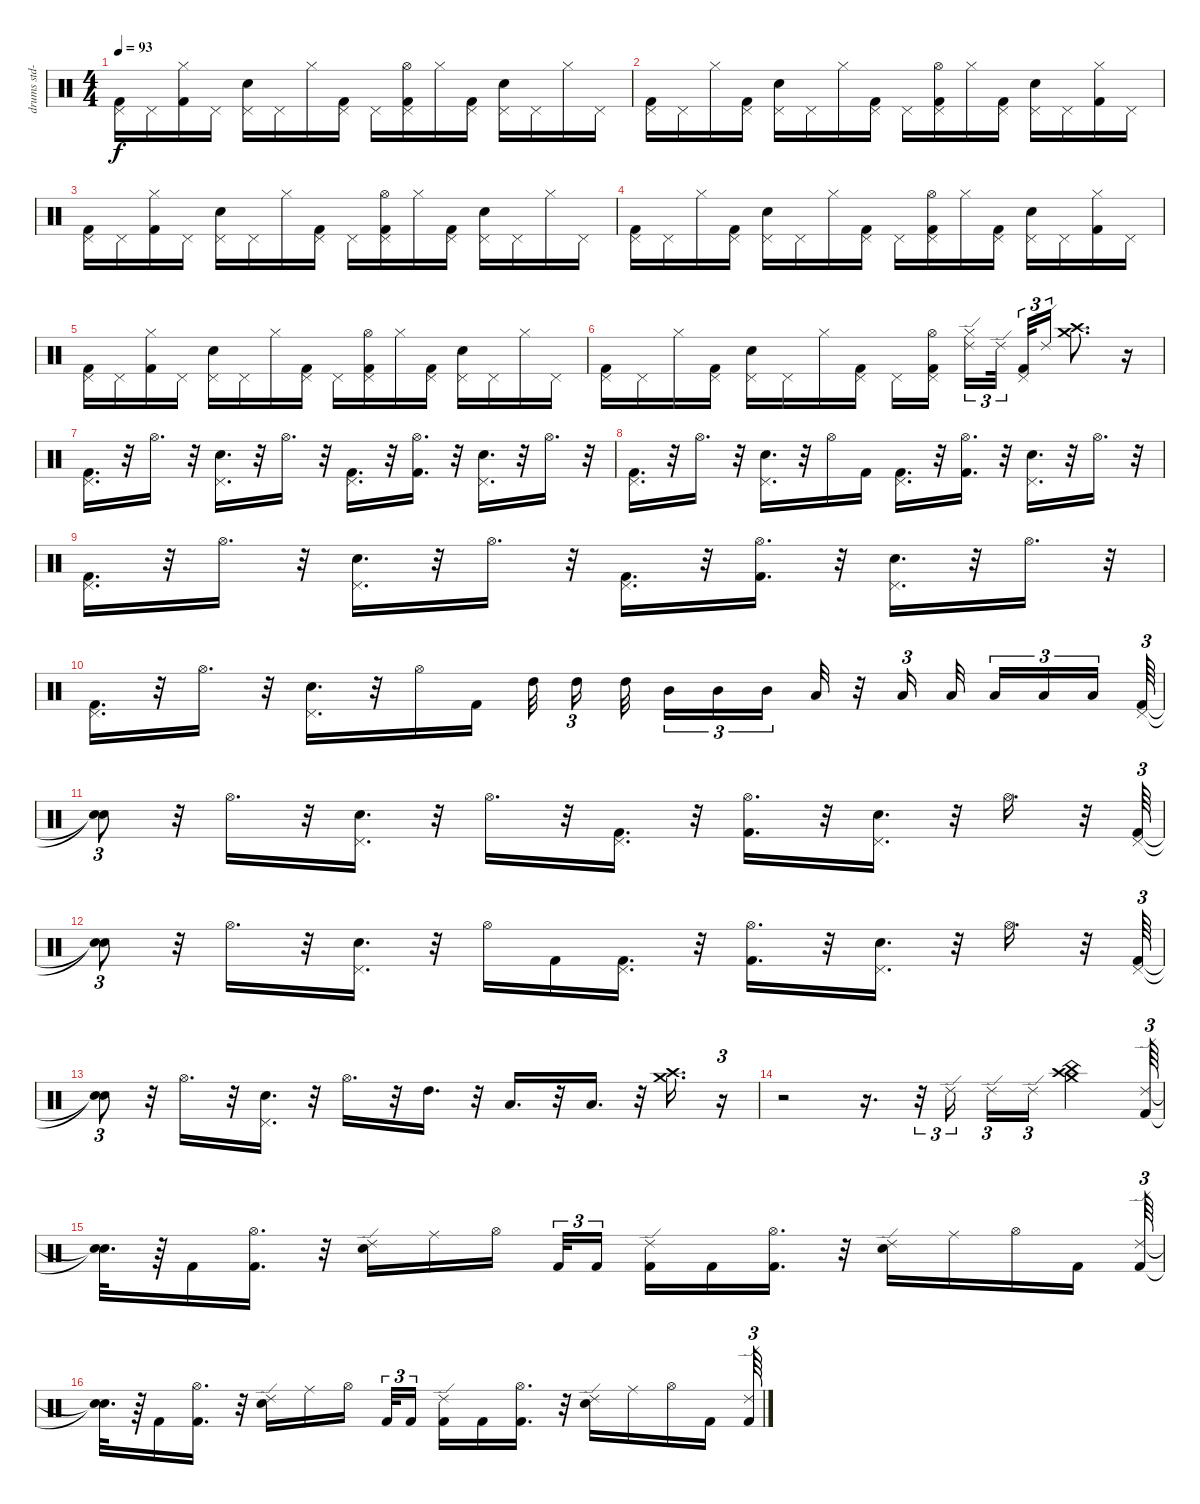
\track ("drums std-0" "drums std-") {instrument percussion}
\staff {score}
\articulation defaults
\ts (4 4)
\tempo 93
\clef neutral
\ks c
("Pedal Hi-Hat (hit)" "Kick (hit) 2").16{dy f} "Pedal Hi-Hat (hit)".16 ("Hi-Hat (closed)" "Kick (hit) 2").16 "Pedal Hi-Hat (hit)".16 ("Pedal Hi-Hat (hit)" "Snare (hit) 2").16 "Pedal Hi-Hat (hit)".16 "Hi-Hat (closed)".16 ("Pedal Hi-Hat (hit)" "Kick (hit) 2").16 "Pedal Hi-Hat (hit)".16 ("Pedal Hi-Hat (hit)" "Kick (hit) 2" "Hi-Hat (open)").16 "Hi-Hat (closed)".16 ("Pedal Hi-Hat (hit)" "Kick (hit) 2").16 ("Pedal Hi-Hat (hit)" "Snare (hit) 2").16 "Pedal Hi-Hat (hit)".16 "Hi-Hat (closed)".16 "Pedal Hi-Hat (hit)".16 |
("Pedal Hi-Hat (hit)" "Kick (hit) 2").16 "Pedal Hi-Hat (hit)".16 "Hi-Hat (closed)".16 ("Pedal Hi-Hat (hit)" "Kick (hit) 2").16 ("Pedal Hi-Hat (hit)" "Snare (hit) 2").16 "Pedal Hi-Hat (hit)".16 "Hi-Hat (closed)".16 ("Pedal Hi-Hat (hit)" "Kick (hit) 2").16 "Pedal Hi-Hat (hit)".16 ("Pedal Hi-Hat (hit)" "Kick (hit) 2" "Hi-Hat (open)").16 "Hi-Hat (closed)".16 ("Pedal Hi-Hat (hit)" "Kick (hit) 2").16 ("Pedal Hi-Hat (hit)" "Snare (hit) 2").16 "Pedal Hi-Hat (hit)".16 ("Hi-Hat (closed)" "Kick (hit) 2").16 "Pedal Hi-Hat (hit)".16 |
("Pedal Hi-Hat (hit)" "Kick (hit) 2").16 "Pedal Hi-Hat (hit)".16 ("Hi-Hat (closed)" "Kick (hit) 2").16 "Pedal Hi-Hat (hit)".16 ("Pedal Hi-Hat (hit)" "Snare (hit) 2").16 "Pedal Hi-Hat (hit)".16 "Hi-Hat (closed)".16 ("Pedal Hi-Hat (hit)" "Kick (hit) 2").16 "Pedal Hi-Hat (hit)".16 ("Pedal Hi-Hat (hit)" "Kick (hit) 2" "Hi-Hat (open)").16 "Hi-Hat (closed)".16 ("Pedal Hi-Hat (hit)" "Kick (hit) 2").16 ("Pedal Hi-Hat (hit)" "Snare (hit) 2").16 "Pedal Hi-Hat (hit)".16 "Hi-Hat (closed)".16 "Pedal Hi-Hat (hit)".16 |
("Pedal Hi-Hat (hit)" "Kick (hit) 2").16 "Pedal Hi-Hat (hit)".16 "Hi-Hat (closed)".16 ("Pedal Hi-Hat (hit)" "Kick (hit) 2").16 ("Pedal Hi-Hat (hit)" "Snare (hit) 2").16 "Pedal Hi-Hat (hit)".16 "Hi-Hat (closed)".16 ("Pedal Hi-Hat (hit)" "Kick (hit) 2").16 "Pedal Hi-Hat (hit)".16 ("Pedal Hi-Hat (hit)" "Kick (hit) 2" "Hi-Hat (open)").16 "Hi-Hat (closed)".16 ("Pedal Hi-Hat (hit)" "Kick (hit) 2").16 ("Pedal Hi-Hat (hit)" "Snare (hit) 2").16 "Pedal Hi-Hat (hit)".16 ("Hi-Hat (closed)" "Kick (hit) 2").16 "Pedal Hi-Hat (hit)".16 |
("Pedal Hi-Hat (hit)" "Kick (hit) 2").16 "Pedal Hi-Hat (hit)".16 ("Hi-Hat (closed)" "Kick (hit) 2").16 "Pedal Hi-Hat (hit)".16 ("Pedal Hi-Hat (hit)" "Snare (hit) 2").16 "Pedal Hi-Hat (hit)".16 "Hi-Hat (closed)".16 ("Pedal Hi-Hat (hit)" "Kick (hit) 2").16 "Pedal Hi-Hat (hit)".16 ("Pedal Hi-Hat (hit)" "Kick (hit) 2" "Hi-Hat (open)").16 "Hi-Hat (closed)".16 ("Pedal Hi-Hat (hit)" "Kick (hit) 2").16 ("Pedal Hi-Hat (hit)" "Snare (hit) 2").16 "Pedal Hi-Hat (hit)".16 "Hi-Hat (closed)".16 "Pedal Hi-Hat (hit)".16 |
("Pedal Hi-Hat (hit)" "Kick (hit) 2").16 "Pedal Hi-Hat (hit)".16 "Hi-Hat (closed)".16 ("Pedal Hi-Hat (hit)" "Kick (hit) 2").16 ("Pedal Hi-Hat (hit)" "Snare (hit) 2").16 "Pedal Hi-Hat (hit)".16 "Hi-Hat (closed)".16 ("Pedal Hi-Hat (hit)" "Kick (hit) 2").16 "Pedal Hi-Hat (hit)".16 ("Pedal Hi-Hat (hit)" "Kick (hit) 2" "Hi-Hat (open)").16 ("Ride (edge) 2" "Hi-Hat (closed)").16{tu (3 2)} "Ride (edge) 2".32{tu (3 2)} ("Pedal Hi-Hat (hit)" "Kick (hit) 2").32{tu (3 2)} "Ride (edge) 2".16{tu (3 2)} ("Crash medium (hit)" "Crash high (hit)").8{d} r.16 |
("Pedal Hi-Hat (hit)" "Kick (hit) 2").16{d} r.32 "Hi-Hat (open)".16{d} r.32 ("Pedal Hi-Hat (hit)" "Snare (hit) 2").16{d} r.32 "Hi-Hat (open)".16{d} r.32 ("Pedal Hi-Hat (hit)" "Kick (hit) 2").16{d} r.32 ("Hi-Hat (open)" "Kick (hit) 2").16{d} r.32 ("Pedal Hi-Hat (hit)" "Snare (hit) 2").16{d} r.32 "Hi-Hat (open)".16{d} r.32 |
("Pedal Hi-Hat (hit)" "Kick (hit) 2").16{d} r.32 "Hi-Hat (open)".16{d} r.32 ("Pedal Hi-Hat (hit)" "Snare (hit) 2").16{d} r.32 "Hi-Hat (open)".16 "Kick (hit) 2".16 ("Pedal Hi-Hat (hit)" "Kick (hit) 2").16{d} r.32 ("Hi-Hat (open)" "Kick (hit) 2").16{d} r.32 ("Pedal Hi-Hat (hit)" "Snare (hit) 2").16{d} r.32 "Hi-Hat (open)".16{d} r.32 |
("Pedal Hi-Hat (hit)" "Kick (hit) 2").16{d} r.32 "Hi-Hat (open)".16{d} r.32 ("Pedal Hi-Hat (hit)" "Snare (hit) 2").16{d} r.32 "Hi-Hat (open)".16{d} r.32 ("Pedal Hi-Hat (hit)" "Kick (hit) 2").16{d} r.32 ("Hi-Hat (open)" "Kick (hit) 2").16{d} r.32 ("Pedal Hi-Hat (hit)" "Snare (hit) 2").16{d} r.32 "Hi-Hat (open)".16{d} r.32 |
("Pedal Hi-Hat (hit)" "Kick (hit) 2").16{d} r.32 "Hi-Hat (open)".16{d} r.32 ("Pedal Hi-Hat (hit)" "Snare (hit) 2").16{d} r.32 "Hi-Hat (open)".16 "Kick (hit) 2".16 "High Tom (hit)".32 "High Tom (hit)".16{tu (3 2)} "High Tom (hit)".32 "Mid Tom (hit)".16{tu (3 2)} "Mid Tom (hit)".16{tu (3 2)} "Mid Tom (hit)".16{tu (3 2)} "Low Tom (hit)".32 r.32 "Low Tom (hit)".16{tu (3 2)} "Low Tom (hit)".32 "Low Floor Tom (hit)".16{tu (3 2)} "Low Floor Tom (hit)".16{tu (3 2)} "Low Floor Tom (hit)".16{tu (3 2)} ("Pedal Hi-Hat (hit)" "Kick (hit) 2").64{tu (3 2)} |
("Snare (hit)"{t} "Snare (hit)"{t}).8{tu (3 2)} r.32 "Hi-Hat (open)".16{d} r.32 ("Pedal Hi-Hat (hit)" "Snare (hit) 2").16{d} r.32 "Hi-Hat (open)".16{d} r.32 ("Pedal Hi-Hat (hit)" "Kick (hit) 2").16{d} r.32 ("Hi-Hat (open)" "Kick (hit) 2").16{d} r.32 ("Pedal Hi-Hat (hit)" "Snare (hit) 2").16{d} r.32 "Hi-Hat (open)".16{d} r.32 ("Pedal Hi-Hat (hit)" "Kick (hit) 2").64{tu (3 2)} |
("Snare (hit)"{t} "Snare (hit)"{t}).8{tu (3 2)} r.32 "Hi-Hat (open)".16{d} r.32 ("Pedal Hi-Hat (hit)" "Snare (hit) 2").16{d} r.32 "Hi-Hat (open)".16 "Kick (hit) 2".16 ("Pedal Hi-Hat (hit)" "Kick (hit) 2").16{d} r.32 ("Hi-Hat (open)" "Kick (hit) 2").16{d} r.32 ("Pedal Hi-Hat (hit)" "Snare (hit) 2").16{d} r.32 "Hi-Hat (open)".16{d} r.32 ("Pedal Hi-Hat (hit)" "Kick (hit) 2").64{tu (3 2)} |
("Snare (hit)"{t} "Snare (hit)"{t}).8{tu (3 2)} r.32 "Hi-Hat (open)".16{d} r.32 ("Pedal Hi-Hat (hit)" "Snare (hit) 2").16{d} r.32 "Hi-Hat (open)".16{d} r.32 "High Tom (hit)".16{d} r.32 "Low Tom (hit)".16{d} r.32 "Low Floor Tom (hit)".16{d} r.32 ("Crash high (hit)" "Crash medium (hit)").16{d} r.16{tu (3 2)} |
r.2 r.16{d} r.32{tu (3 2)} "Ride (edge) 2".16{tu (3 2)} "Ride (edge) 2".16{tu (3 2)} "Ride (edge) 2".16{tu (3 2)} ("Crash medium (hit)" "Crash high (hit)" "China (hit)").4 ("Kick (hit) 2" "Ride (edge) 2").64{tu (3 2)} |
("Snare (hit)"{t} "Snare (hit)"{t}).32{d} r.64 "Kick (hit) 2".16 ("Kick (hit) 2" "Hi-Hat (open)").16{d} r.32 ("Ride (edge) 2" "Snare (hit) 2").16 "Ride (middle)".16 "Hi-Hat (open)".16 "Kick (hit) 2".32{tu (3 2)} "Kick (hit) 2".16{tu (3 2)} ("Ride (edge) 2" "Kick (hit) 2").16 "Kick (hit) 2".16 ("Hi-Hat (open)" "Kick (hit) 2").16{d} r.32 ("Ride (edge) 2" "Snare (hit) 2").16 "Ride (middle)".16 "Hi-Hat (open)".16 "Kick (hit) 2".16 ("Kick (hit) 2" "Ride (edge) 2").64{tu (3 2)} |
("Snare (hit)"{t} "Snare (hit)"{t}).32{d} r.64 "Kick (hit) 2".16 ("Kick (hit) 2" "Hi-Hat (open)").16{d} r.32 ("Ride (edge) 2" "Snare (hit) 2").16 "Ride (middle)".16 "Hi-Hat (open)".16 "Kick (hit) 2".32{tu (3 2)} "Kick (hit) 2".16{tu (3 2)} ("Ride (edge) 2" "Kick (hit) 2").16 "Kick (hit) 2".16 ("Hi-Hat (open)" "Kick (hit) 2").16{d} r.32 ("Ride (edge) 2" "Snare (hit) 2").16 "Ride (middle)".16 "Hi-Hat (open)".16 "Kick (hit) 2".16 ("Kick (hit) 2" "Ride (edge) 2").64{tu (3 2)}
